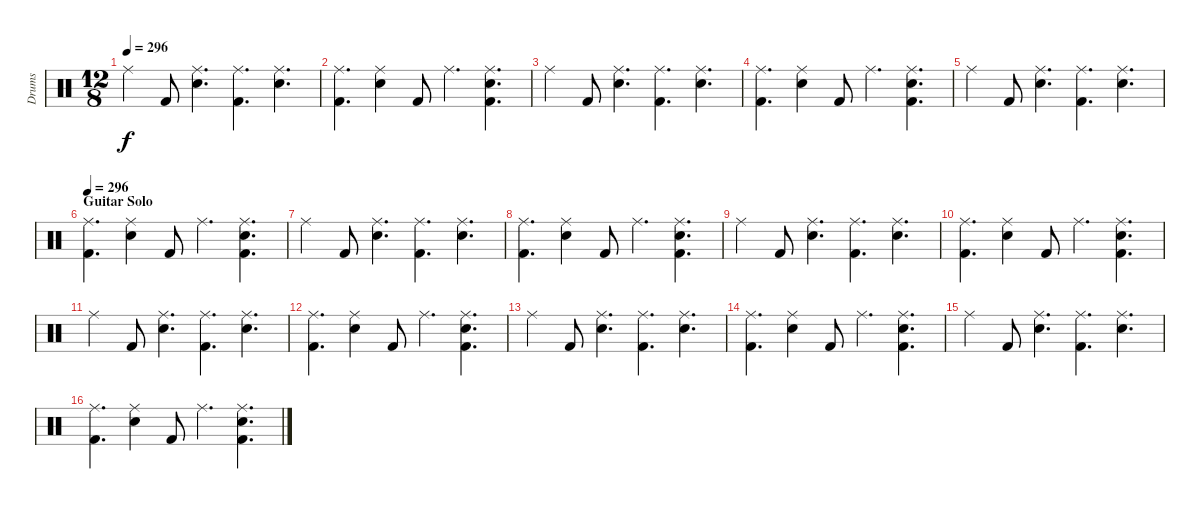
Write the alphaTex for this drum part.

\track ("Drums" "Drums") {instrument percussion}
\staff {score}
\articulation defaults
\ts (12 8)
\tempo 296
\clef neutral
\ks c "Ride (middle)".4{dy f} "Kick (hit) 2".8
("Ride (middle)" "Electric Snare (hit)").4{d} ("Ride (middle)" "Kick (hit) 2").4{d} ("Ride (middle)" "Electric Snare (hit)").4{d} |
("Ride (middle)" "Kick (hit) 2").4{d} ("Ride (middle)" "Electric Snare (hit)").4 "Kick (hit) 2".8 "Ride (middle)".4{d} ("Ride (middle)" "Electric Snare (hit)" "Kick (hit) 2").4{d} |
"Ride (middle)".4 "Kick (hit) 2".8 ("Ride (middle)" "Electric Snare (hit)").4{d} ("Ride (middle)" "Kick (hit) 2").4{d} ("Ride (middle)" "Electric Snare (hit)").4{d} |
("Ride (middle)" "Kick (hit) 2").4{d} ("Ride (middle)" "Electric Snare (hit)").4 "Kick (hit) 2".8 "Ride (middle)".4{d} ("Ride (middle)" "Electric Snare (hit)" "Kick (hit) 2").4{d} |
"Ride (middle)".4 "Kick (hit) 2".8 ("Ride (middle)" "Electric Snare (hit)").4{d} ("Ride (middle)" "Kick (hit) 2").4{d} ("Ride (middle)" "Electric Snare (hit)").4{d} |
\section ("" "Guitar Solo")
\tempo 296
("Ride (middle)" "Kick (hit) 2").4{d} ("Ride (middle)" "Electric Snare (hit)").4 "Kick (hit) 2".8 "Ride (middle)".4{d} ("Ride (middle)" "Electric Snare (hit)" "Kick (hit) 2").4{d} |
"Ride (middle)".4 "Kick (hit) 2".8 ("Ride (middle)" "Electric Snare (hit)").4{d} ("Ride (middle)" "Kick (hit) 2").4{d} ("Ride (middle)" "Electric Snare (hit)").4{d} |
("Ride (middle)" "Kick (hit) 2").4{d} ("Ride (middle)" "Electric Snare (hit)").4 "Kick (hit) 2".8 "Ride (middle)".4{d} ("Ride (middle)" "Electric Snare (hit)" "Kick (hit) 2").4{d} |
"Ride (middle)".4 "Kick (hit) 2".8 ("Ride (middle)" "Electric Snare (hit)").4{d} ("Ride (middle)" "Kick (hit) 2").4{d} ("Ride (middle)" "Electric Snare (hit)").4{d} |
("Ride (middle)" "Kick (hit) 2").4{d} ("Ride (middle)" "Electric Snare (hit)").4 "Kick (hit) 2".8 "Ride (middle)".4{d} ("Ride (middle)" "Electric Snare (hit)" "Kick (hit) 2").4{d} |
"Ride (middle)".4 "Kick (hit) 2".8 ("Ride (middle)" "Electric Snare (hit)").4{d} ("Ride (middle)" "Kick (hit) 2").4{d} ("Ride (middle)" "Electric Snare (hit)").4{d} |
("Ride (middle)" "Kick (hit) 2").4{d} ("Ride (middle)" "Electric Snare (hit)").4 "Kick (hit) 2".8 "Ride (middle)".4{d} ("Ride (middle)" "Electric Snare (hit)" "Kick (hit) 2").4{d} |
"Ride (middle)".4 "Kick (hit) 2".8 ("Ride (middle)" "Electric Snare (hit)").4{d} ("Ride (middle)" "Kick (hit) 2").4{d} ("Ride (middle)" "Electric Snare (hit)").4{d} |
("Ride (middle)" "Kick (hit) 2").4{d} ("Ride (middle)" "Electric Snare (hit)").4 "Kick (hit) 2".8 "Ride (middle)".4{d} ("Ride (middle)" "Electric Snare (hit)" "Kick (hit) 2").4{d} |
"Ride (middle)".4 "Kick (hit) 2".8 ("Ride (middle)" "Electric Snare (hit)").4{d} ("Ride (middle)" "Kick (hit) 2").4{d} ("Ride (middle)" "Electric Snare (hit)").4{d} |
("Ride (middle)" "Kick (hit) 2").4{d} ("Ride (middle)" "Electric Snare (hit)").4 "Kick (hit) 2".8 "Ride (middle)".4{d} ("Ride (middle)" "Electric Snare (hit)" "Kick (hit) 2").4{d}
